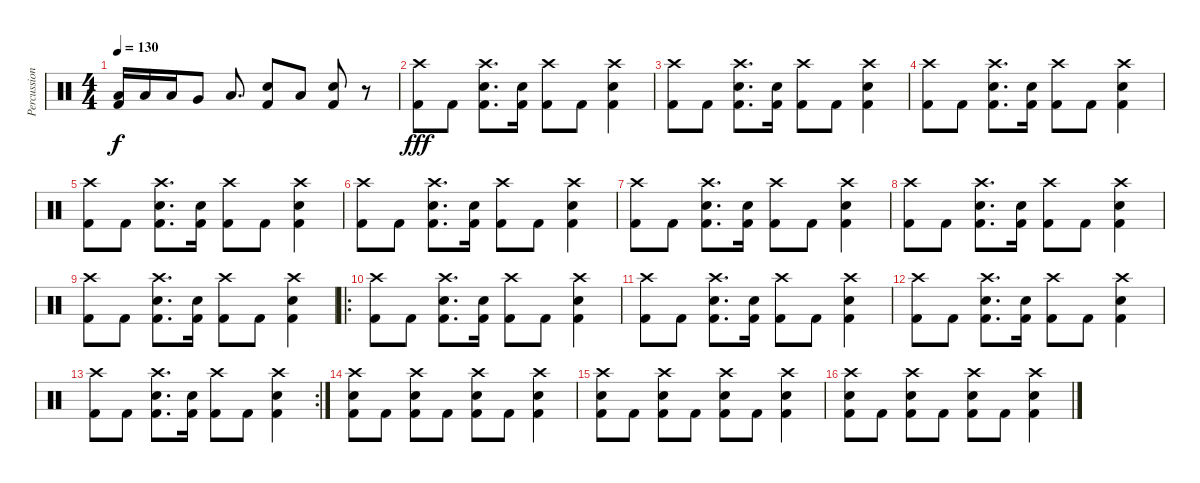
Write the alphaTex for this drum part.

\track ("Percussion" "Percussion") {instrument percussion}
\staff {score}
\articulation defaults
\ts (4 4)
\tempo 130
\clef neutral
\ks c
("Low Tom (hit)" "Kick (hit) 2").16{dy f} "Low Tom (hit)".16 "Low Tom (hit)".16 "Very Low Tom (hit)".8 "Low Floor Tom (hit)".8{d} ("Electric Snare (hit)" "Kick (hit) 2").8 "Low Floor Tom (hit)".8 ("Electric Snare (hit)" "Kick (hit) 2").8 r.8 |
("Crash high (hit)" "Kick (hit) 2").8{dy fff} "Kick (hit) 2".8 ("Crash high (hit)" "Electric Snare (hit)" "Kick (hit) 2").8{d} ("Electric Snare (hit)" "Kick (hit) 2").16 ("Crash high (hit)" "Kick (hit) 2").8 "Kick (hit) 2".8 ("Crash high (hit)" "Electric Snare (hit)" "Kick (hit) 2").4 |
("Crash high (hit)" "Kick (hit) 2").8 "Kick (hit) 2".8 ("Crash high (hit)" "Electric Snare (hit)" "Kick (hit) 2").8{d} ("Electric Snare (hit)" "Kick (hit) 2").16 ("Crash high (hit)" "Kick (hit) 2").8 "Kick (hit) 2".8 ("Crash high (hit)" "Electric Snare (hit)" "Kick (hit) 2").4 |
("Crash high (hit)" "Kick (hit) 2").8 "Kick (hit) 2".8 ("Crash high (hit)" "Electric Snare (hit)" "Kick (hit) 2").8{d} ("Electric Snare (hit)" "Kick (hit) 2").16 ("Crash high (hit)" "Kick (hit) 2").8 "Kick (hit) 2".8 ("Crash high (hit)" "Electric Snare (hit)" "Kick (hit) 2").4 |
("Crash high (hit)" "Kick (hit) 2").8 "Kick (hit) 2".8 ("Crash high (hit)" "Electric Snare (hit)" "Kick (hit) 2").8{d} ("Electric Snare (hit)" "Kick (hit) 2").16 ("Crash high (hit)" "Kick (hit) 2").8 "Kick (hit) 2".8 ("Crash high (hit)" "Electric Snare (hit)" "Kick (hit) 2").4 |
("Crash high (hit)" "Kick (hit) 2").8 "Kick (hit) 2".8 ("Crash high (hit)" "Electric Snare (hit)" "Kick (hit) 2").8{d} ("Electric Snare (hit)" "Kick (hit) 2").16 ("Crash high (hit)" "Kick (hit) 2").8 "Kick (hit) 2".8 ("Crash high (hit)" "Electric Snare (hit)" "Kick (hit) 2").4 |
("Crash high (hit)" "Kick (hit) 2").8 "Kick (hit) 2".8 ("Crash high (hit)" "Electric Snare (hit)" "Kick (hit) 2").8{d} ("Electric Snare (hit)" "Kick (hit) 2").16 ("Crash high (hit)" "Kick (hit) 2").8 "Kick (hit) 2".8 ("Crash high (hit)" "Electric Snare (hit)" "Kick (hit) 2").4 |
("Crash high (hit)" "Kick (hit) 2").8 "Kick (hit) 2".8 ("Crash high (hit)" "Electric Snare (hit)" "Kick (hit) 2").8{d} ("Electric Snare (hit)" "Kick (hit) 2").16 ("Crash high (hit)" "Kick (hit) 2").8 "Kick (hit) 2".8 ("Crash high (hit)" "Electric Snare (hit)" "Kick (hit) 2").4 |
("Crash high (hit)" "Kick (hit) 2").8 "Kick (hit) 2".8 ("Crash high (hit)" "Electric Snare (hit)" "Kick (hit) 2").8{d} ("Electric Snare (hit)" "Kick (hit) 2").16 ("Crash high (hit)" "Kick (hit) 2").8 "Kick (hit) 2".8 ("Crash high (hit)" "Electric Snare (hit)" "Kick (hit) 2").4 |
\ro
("Crash high (hit)" "Kick (hit) 2").8 "Kick (hit) 2".8 ("Crash high (hit)" "Electric Snare (hit)" "Kick (hit) 2").8{d} ("Electric Snare (hit)" "Kick (hit) 2").16 ("Crash high (hit)" "Kick (hit) 2").8 "Kick (hit) 2".8 ("Crash high (hit)" "Electric Snare (hit)" "Kick (hit) 2").4 |
("Crash high (hit)" "Kick (hit) 2").8 "Kick (hit) 2".8 ("Crash high (hit)" "Electric Snare (hit)" "Kick (hit) 2").8{d} ("Electric Snare (hit)" "Kick (hit) 2").16 ("Crash high (hit)" "Kick (hit) 2").8 "Kick (hit) 2".8 ("Crash high (hit)" "Electric Snare (hit)" "Kick (hit) 2").4 |
("Crash high (hit)" "Kick (hit) 2").8 "Kick (hit) 2".8 ("Crash high (hit)" "Electric Snare (hit)" "Kick (hit) 2").8{d} ("Electric Snare (hit)" "Kick (hit) 2").16 ("Crash high (hit)" "Kick (hit) 2").8 "Kick (hit) 2".8 ("Crash high (hit)" "Electric Snare (hit)" "Kick (hit) 2").4 |
\rc 2
("Crash high (hit)" "Kick (hit) 2").8 "Kick (hit) 2".8 ("Crash high (hit)" "Electric Snare (hit)" "Kick (hit) 2").8{d} ("Electric Snare (hit)" "Kick (hit) 2").16 ("Crash high (hit)" "Kick (hit) 2").8 "Kick (hit) 2".8 ("Crash high (hit)" "Electric Snare (hit)" "Kick (hit) 2").4 |
("Crash high (hit)" "Electric Snare (hit)" "Kick (hit) 2").8 "Kick (hit) 2".8 ("Crash high (hit)" "Electric Snare (hit)" "Kick (hit) 2").8 "Kick (hit) 2".8 ("Crash high (hit)" "Electric Snare (hit)" "Kick (hit) 2").8 "Kick (hit) 2".8 ("Crash high (hit)" "Electric Snare (hit)" "Kick (hit) 2").4 |
("Crash high (hit)" "Electric Snare (hit)" "Kick (hit) 2").8 "Kick (hit) 2".8 ("Crash high (hit)" "Electric Snare (hit)" "Kick (hit) 2").8 "Kick (hit) 2".8 ("Crash high (hit)" "Electric Snare (hit)" "Kick (hit) 2").8 "Kick (hit) 2".8 ("Crash high (hit)" "Electric Snare (hit)" "Kick (hit) 2").4 |
("Crash high (hit)" "Electric Snare (hit)" "Kick (hit) 2").8 "Kick (hit) 2".8 ("Crash high (hit)" "Electric Snare (hit)" "Kick (hit) 2").8 "Kick (hit) 2".8 ("Crash high (hit)" "Electric Snare (hit)" "Kick (hit) 2").8 "Kick (hit) 2".8 ("Crash high (hit)" "Electric Snare (hit)" "Kick (hit) 2").4
